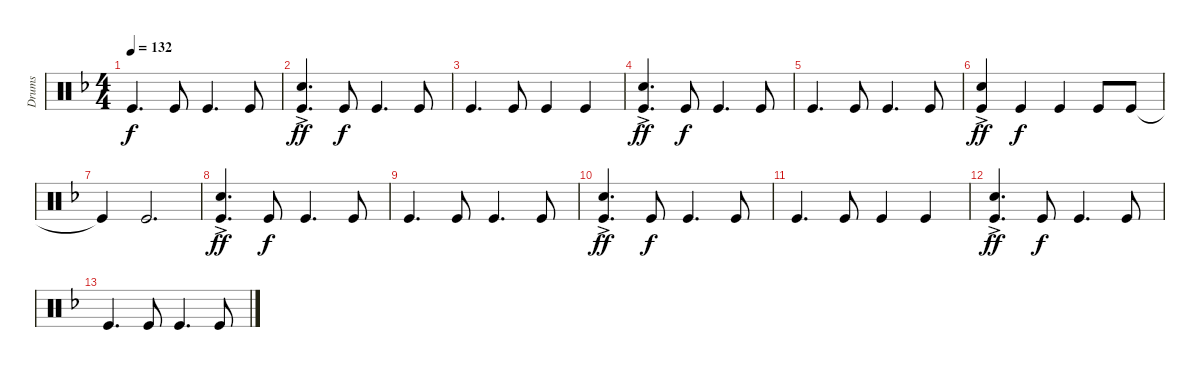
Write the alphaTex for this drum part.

\track ("Drums" "Drums") {instrument percussion}
\staff {score}
\articulation defaults
\ts (4 4)
\tempo 132
\clef neutral
\ks f "Kick (hit)".4{d dy f} "Kick (hit)".8 "Kick (hit)".4{d} "Kick (hit)".8
|
("Electric Snare (hit)"{ac} "Kick (hit)"{ac}).4{d dy ff} "Kick (hit)".8{dy f} "Kick (hit)".4{d} "Kick (hit)".8 |
"Kick (hit)".4{d} "Kick (hit)".8 "Kick (hit)".4 "Kick (hit)".4 |
("Electric Snare (hit)"{ac} "Kick (hit)"{ac}).4{d dy ff} "Kick (hit)".8{dy f} "Kick (hit)".4{d} "Kick (hit)".8 |
"Kick (hit)".4{d} "Kick (hit)".8 "Kick (hit)".4{d} "Kick (hit)".8 |
("Electric Snare (hit)"{ac} "Kick (hit)"{ac}).4{dy ff} "Kick (hit)".4{dy f} "Kick (hit)".4 "Kick (hit)".8 "Kick (hit)".8 |
"Kick (hit)"{t}.4 "Kick (hit)".2{d} |
("Electric Snare (hit)"{ac} "Kick (hit)"{ac}).4{d dy ff} "Kick (hit)".8{dy f} "Kick (hit)".4{d} "Kick (hit)".8 |
"Kick (hit)".4{d} "Kick (hit)".8 "Kick (hit)".4{d} "Kick (hit)".8 |
("Electric Snare (hit)"{ac} "Kick (hit)"{ac}).4{d dy ff} "Kick (hit)".8{dy f} "Kick (hit)".4{d} "Kick (hit)".8 |
"Kick (hit)".4{d} "Kick (hit)".8 "Kick (hit)".4 "Kick (hit)".4 |
("Electric Snare (hit)"{ac} "Kick (hit)"{ac}).4{d dy ff} "Kick (hit)".8{dy f} "Kick (hit)".4{d} "Kick (hit)".8 |
"Kick (hit)".4{d} "Kick (hit)".8 "Kick (hit)".4{d} "Kick (hit)".8
